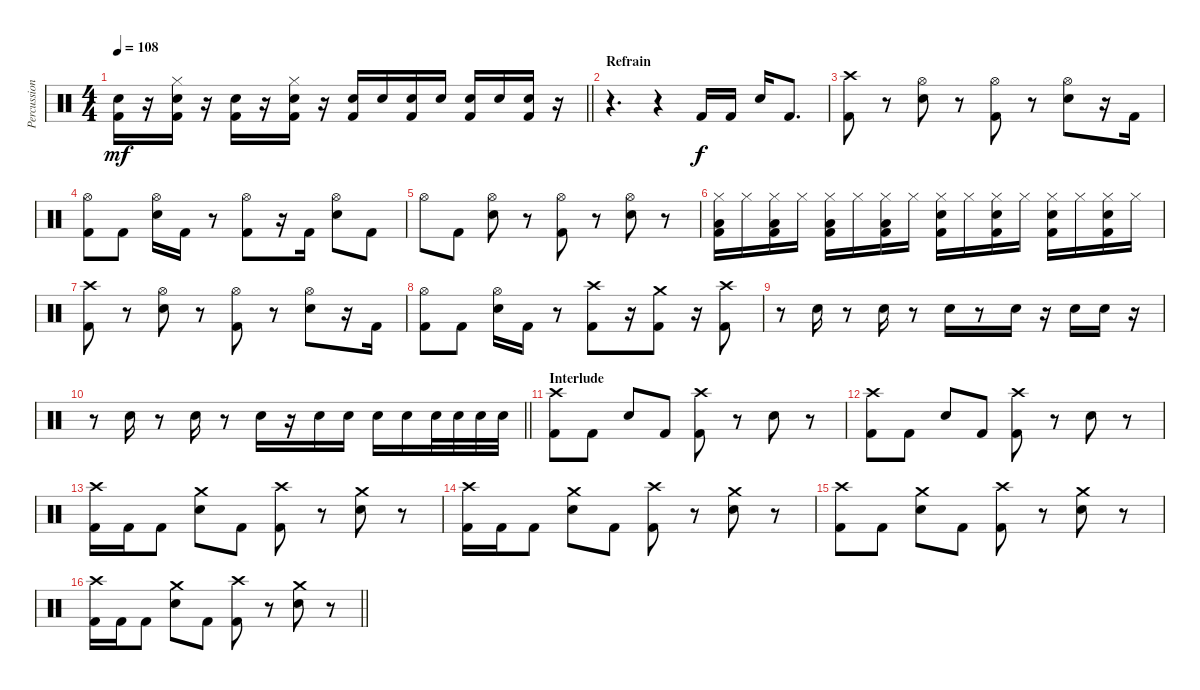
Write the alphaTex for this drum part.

\track ("Percussions" "Percussion") {instrument percussion}
\staff {score}
\articulation defaults
\ts (4 4)
\tempo 108
\clef neutral
\barLineRight lightlight
\ks c
("Snare (hit) 2" "Kick (hit) 2").16{dy mf} r.16 ("Hi-Hat (closed)" "Snare (hit) 2" "Kick (hit) 2").16 r.16 ("Snare (hit) 2" "Kick (hit) 2").16 r.16 ("Hi-Hat (closed)" "Snare (hit) 2" "Kick (hit) 2").16 r.16 ("Snare (hit) 2" "Kick (hit) 2").16 "Snare (hit) 2".16 ("Snare (hit) 2" "Kick (hit) 2").16 "Snare (hit) 2".16 ("Snare (hit) 2" "Kick (hit) 2").16 "Snare (hit) 2".16 ("Snare (hit) 2" "Kick (hit) 2").16 r.16 |
\section ("" "Refrain")
r.4{d} r.4 "Kick (hit) 2".16{dy f} "Kick (hit) 2".16 "Snare (hit) 2".16 "Kick (hit) 2".8{d} |
("Crash high (hit)" "Kick (hit) 2").8 r.8 ("Hi-Hat (open)" "Snare (hit) 2").8 r.8 ("Hi-Hat (open)" "Kick (hit) 2").8 r.8 ("Hi-Hat (open)" "Snare (hit) 2").8 r.16 "Kick (hit) 2".16 |
("Hi-Hat (open)" "Kick (hit) 2").8 "Kick (hit) 2".8 ("Hi-Hat (open)" "Snare (hit) 2").16 "Kick (hit) 2".16 r.8 ("Hi-Hat (open)" "Kick (hit) 2").8 r.16 "Kick (hit) 2".16 ("Hi-Hat (open)" "Snare (hit) 2").8 "Kick (hit) 2".8 |
"Hi-Hat (open)".8 "Kick (hit) 2".8 ("Hi-Hat (open)" "Snare (hit) 2").8 r.8 ("Hi-Hat (open)" "Kick (hit) 2").8 r.8 ("Hi-Hat (open)" "Snare (hit) 2").8 r.8 |
("Hi-Hat (closed)" "Low Floor Tom (hit)" "Kick (hit) 2").16 "Hi-Hat (closed)".16 ("Hi-Hat (closed)" "Low Floor Tom (hit)" "Kick (hit) 2").16 "Hi-Hat (closed)".16 ("Hi-Hat (closed)" "Low Floor Tom (hit)" "Kick (hit) 2").16 "Hi-Hat (closed)".16 ("Hi-Hat (closed)" "Low Floor Tom (hit)" "Kick (hit) 2").16 "Hi-Hat (closed)".16 ("Hi-Hat (closed)" "Electric Snare (hit)" "Kick (hit) 2").16 "Hi-Hat (closed)".16 ("Hi-Hat (closed)" "Electric Snare (hit)" "Kick (hit) 2").16 "Hi-Hat (closed)".16 ("Hi-Hat (closed)" "Electric Snare (hit)" "Kick (hit) 2").16 "Hi-Hat (closed)".16 ("Hi-Hat (closed)" "Electric Snare (hit)" "Kick (hit) 2").16 "Hi-Hat (closed)".16 |
("Crash high (hit)" "Kick (hit) 2").8 r.8 ("Hi-Hat (open)" "Snare (hit) 2").8 r.8 ("Hi-Hat (open)" "Kick (hit) 2").8 r.8 ("Hi-Hat (open)" "Snare (hit) 2").8 r.16 "Kick (hit) 2".16 |
("Hi-Hat (open)" "Kick (hit) 2").8 "Kick (hit) 2".8 ("Hi-Hat (open)" "Snare (hit) 2").16 "Kick (hit) 2".16 r.8 ("Crash high (hit)" "Kick (hit) 2").8 r.16 ("Crash medium (hit)" "Kick (hit) 2").8 r.16 ("Crash high (hit)" "Kick (hit) 2").8 |
r.8 "Electric Snare (hit)".16 r.8 "Electric Snare (hit)".16 r.8 "Electric Snare (hit)".16 r.8 "Electric Snare (hit)".16 r.16 "Electric Snare (hit)".16 "Electric Snare (hit)".16 r.16 |
\barLineRight lightlight
r.8 "Electric Snare (hit)".16 r.8 "Electric Snare (hit)".16 r.8 "Electric Snare (hit)".16 r.16 "Electric Snare (hit)".16 "Electric Snare (hit)".16 "Electric Snare (hit)".16 "Electric Snare (hit)".16 "Electric Snare (hit)".32 "Electric Snare (hit)".32 "Electric Snare (hit)".32 "Electric Snare (hit)".32 |
\section ("" "Interlude")
("Crash high (hit)" "Kick (hit) 2").8 "Kick (hit) 2".8 "Snare (hit) 2".8 "Kick (hit) 2".8 ("Crash high (hit)" "Kick (hit) 2").8 r.8 "Snare (hit) 2".8 r.8 |
("Crash high (hit)" "Kick (hit) 2").8 "Kick (hit) 2".8 "Snare (hit) 2".8 "Kick (hit) 2".8 ("Crash high (hit)" "Kick (hit) 2").8 r.8 "Snare (hit) 2".8 r.8 |
("Crash high (hit)" "Kick (hit) 2").16 "Kick (hit) 2".16 "Kick (hit) 2".8 ("Crash medium (hit)" "Snare (hit) 2").8 "Kick (hit) 2".8 ("Crash high (hit)" "Kick (hit) 2").8 r.8 ("Crash medium (hit)" "Snare (hit) 2").8 r.8 |
("Crash high (hit)" "Kick (hit) 2").16 "Kick (hit) 2".16 "Kick (hit) 2".8 ("Crash medium (hit)" "Snare (hit) 2").8 "Kick (hit) 2".8 ("Crash high (hit)" "Kick (hit) 2").8 r.8 ("Crash medium (hit)" "Snare (hit) 2").8 r.8 |
("Crash high (hit)" "Kick (hit) 2").8 "Kick (hit) 2".8 ("Crash medium (hit)" "Snare (hit) 2").8 "Kick (hit) 2".8 ("Crash high (hit)" "Kick (hit) 2").8 r.8 ("Crash medium (hit)" "Snare (hit) 2").8 r.8 |
\barLineRight lightlight
("Crash high (hit)" "Kick (hit) 2").16 "Kick (hit) 2".16 "Kick (hit) 2".8 ("Crash medium (hit)" "Snare (hit) 2").8 "Kick (hit) 2".8 ("Crash high (hit)" "Kick (hit) 2").8 r.8 ("Crash medium (hit)" "Snare (hit) 2").8 r.8
